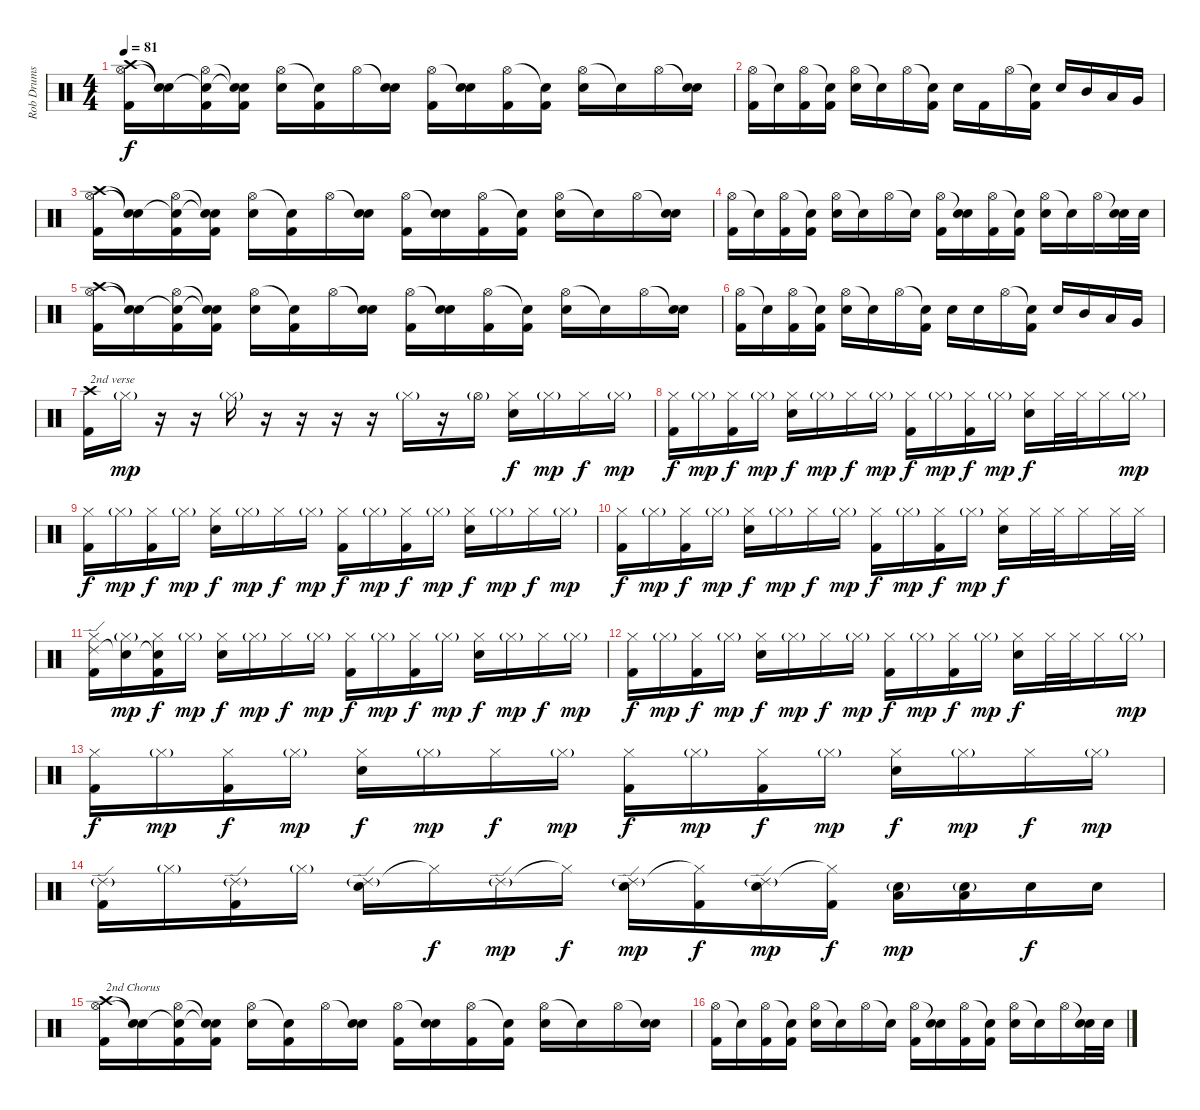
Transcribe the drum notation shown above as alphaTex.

\track ("Rob Drums" "Rob Drums") {instrument percussion}
\staff {score}
\articulation defaults
\ts (4 4)
\tempo 81
\clef neutral
\ks c
("Crash high (hit)" "Hi-Hat (open)" "Kick (hit) 2").16{dy f} ("Snare (hit)"{t} "Snare (hit)"{t}).16 ("Snare (hit)"{t} "Hi-Hat (open)" "Kick (hit) 2").16 ("Snare (hit)"{t} "Snare (hit)"{t} "Kick (hit) 2").16 ("Hi-Hat (open)" "Electric Snare (hit)").16 ("Snare (hit)"{t} "Kick (hit) 2").16 "Hi-Hat (open)".16 ("Snare (hit)"{t} "Electric Snare (hit)").16 ("Hi-Hat (open)" "Kick (hit) 2").16 ("Snare (hit)"{t} "Electric Snare (hit)").16 ("Hi-Hat (open)" "Kick (hit) 2").16 ("Snare (hit)"{t} "Kick (hit) 2").16 ("Hi-Hat (open)" "Electric Snare (hit)").16 "Snare (hit)"{t}.16 "Hi-Hat (open)".16 ("Snare (hit)"{t} "Electric Snare (hit)").16 |
("Hi-Hat (open)" "Kick (hit) 2").16 "Snare (hit)"{t}.16 ("Hi-Hat (open)" "Kick (hit) 2").16 ("Snare (hit)"{t} "Kick (hit) 2").16 ("Hi-Hat (open)" "Electric Snare (hit)").16 "Snare (hit)"{t}.16 "Hi-Hat (open)".16 ("Snare (hit)"{t} "Kick (hit) 2").16 "Electric Snare (hit)".16 "Kick (hit) 2".16 "Hi-Hat (open)".16 ("Snare (hit)"{t} "Kick (hit) 2").16 "Electric Snare (hit)".16 "Mid Tom (hit)".16 "Low Tom (hit)".16 "Very Low Tom (hit)".16 |
("Crash high (hit)" "Hi-Hat (open)" "Kick (hit) 2").16 ("Snare (hit)"{t} "Snare (hit)"{t}).16 ("Snare (hit)"{t} "Hi-Hat (open)" "Kick (hit) 2").16 ("Snare (hit)"{t} "Snare (hit)"{t} "Kick (hit) 2").16 ("Hi-Hat (open)" "Electric Snare (hit)").16 ("Snare (hit)"{t} "Kick (hit) 2").16 "Hi-Hat (open)".16 ("Snare (hit)"{t} "Electric Snare (hit)").16 ("Hi-Hat (open)" "Kick (hit) 2").16 ("Snare (hit)"{t} "Electric Snare (hit)").16 ("Hi-Hat (open)" "Kick (hit) 2").16 ("Snare (hit)"{t} "Kick (hit) 2").16 ("Hi-Hat (open)" "Electric Snare (hit)").16 "Snare (hit)"{t}.16 "Hi-Hat (open)".16 ("Snare (hit)"{t} "Electric Snare (hit)").16 |
("Hi-Hat (open)" "Kick (hit) 2").16 "Snare (hit)"{t}.16 ("Hi-Hat (open)" "Kick (hit) 2").16 ("Snare (hit)"{t} "Kick (hit) 2").16 ("Hi-Hat (open)" "Electric Snare (hit)").16 "Snare (hit)"{t}.16 "Hi-Hat (open)".16 "Snare (hit)"{t}.16 ("Hi-Hat (open)" "Kick (hit) 2").16 ("Snare (hit)"{t} "Electric Snare (hit)").16 ("Hi-Hat (open)" "Kick (hit) 2").16 ("Snare (hit)"{t} "Kick (hit) 2").16 ("Hi-Hat (open)" "Electric Snare (hit)").16 "Snare (hit)"{t}.16 "Hi-Hat (open)".16 ("Snare (hit)"{t} "Electric Snare (hit)").32 "Electric Snare (hit)".32 |
("Crash high (hit)" "Hi-Hat (open)" "Kick (hit) 2").16 ("Snare (hit)"{t} "Snare (hit)"{t}).16 ("Snare (hit)"{t} "Hi-Hat (open)" "Kick (hit) 2").16 ("Snare (hit)"{t} "Snare (hit)"{t} "Kick (hit) 2").16 ("Hi-Hat (open)" "Electric Snare (hit)").16 ("Snare (hit)"{t} "Kick (hit) 2").16 "Hi-Hat (open)".16 ("Snare (hit)"{t} "Electric Snare (hit)").16 ("Hi-Hat (open)" "Kick (hit) 2").16 ("Snare (hit)"{t} "Electric Snare (hit)").16 ("Hi-Hat (open)" "Kick (hit) 2").16 ("Snare (hit)"{t} "Kick (hit) 2").16 ("Hi-Hat (open)" "Electric Snare (hit)").16 "Snare (hit)"{t}.16 "Hi-Hat (open)".16 ("Snare (hit)"{t} "Electric Snare (hit)").16 |
("Hi-Hat (open)" "Kick (hit) 2").16 "Snare (hit)"{t}.16 ("Hi-Hat (open)" "Kick (hit) 2").16 ("Snare (hit)"{t} "Kick (hit) 2").16 ("Hi-Hat (open)" "Electric Snare (hit)").16 "Snare (hit)"{t}.16 "Hi-Hat (open)".16 ("Snare (hit)"{t} "Kick (hit) 2").16 "Electric Snare (hit)".16 "Electric Snare (hit)".16 "Hi-Hat (open)".16 ("Snare (hit)"{t} "Kick (hit) 2").16 "Electric Snare (hit)".16 "Mid Tom (hit)".16 "Low Tom (hit)".16 "Very Low Tom (hit)".16 |
("Crash high (hit)" "Kick (hit) 2").16{txt "2nd verse"} "Hi-Hat (closed)"{g}.16{dy mp} r.16 r.16 "Hi-Hat (closed)"{g}.16 r.16 r.16 r.16 r.16 "Hi-Hat (closed)"{g}.16 r.16 "Hi-Hat (open)"{g}.16 ("Hi-Hat (closed)" "Electric Snare (hit)").16{dy f} "Hi-Hat (closed)"{g}.16{dy mp} "Hi-Hat (closed)".16{dy f} "Hi-Hat (closed)"{g}.16{dy mp} |
("Hi-Hat (closed)" "Kick (hit) 2").16{dy f} "Hi-Hat (closed)"{g}.16{dy mp} ("Hi-Hat (closed)" "Kick (hit) 2").16{dy f} "Hi-Hat (closed)"{g}.16{dy mp} ("Hi-Hat (closed)" "Electric Snare (hit)").16{dy f} "Hi-Hat (closed)"{g}.16{dy mp} "Hi-Hat (closed)".16{dy f} "Hi-Hat (closed)"{g}.16{dy mp} ("Hi-Hat (closed)" "Kick (hit) 2").16{dy f} "Hi-Hat (closed)"{g}.16{dy mp} ("Hi-Hat (closed)" "Kick (hit) 2").16{dy f} "Hi-Hat (closed)"{g}.16{dy mp} ("Hi-Hat (closed)" "Electric Snare (hit)").16{dy f} "Hi-Hat (closed)".32 "Hi-Hat (closed)".32 "Hi-Hat (closed)".16 "Hi-Hat (closed)"{g}.16{dy mp} |
("Hi-Hat (closed)" "Kick (hit) 2").16{dy f} "Hi-Hat (closed)"{g}.16{dy mp} ("Hi-Hat (closed)" "Kick (hit) 2").16{dy f} "Hi-Hat (closed)"{g}.16{dy mp} ("Hi-Hat (closed)" "Electric Snare (hit)").16{dy f} "Hi-Hat (closed)"{g}.16{dy mp} "Hi-Hat (closed)".16{dy f} "Hi-Hat (closed)"{g}.16{dy mp} ("Hi-Hat (closed)" "Kick (hit) 2").16{dy f} "Hi-Hat (closed)"{g}.16{dy mp} ("Hi-Hat (closed)" "Kick (hit) 2").16{dy f} "Hi-Hat (closed)"{g}.16{dy mp} ("Hi-Hat (closed)" "Electric Snare (hit)").16{dy f} "Hi-Hat (closed)"{g}.16{dy mp} "Hi-Hat (closed)".16{dy f} "Hi-Hat (closed)"{g}.16{dy mp} |
("Hi-Hat (closed)" "Kick (hit) 2").16{dy f} "Hi-Hat (closed)"{g}.16{dy mp} ("Hi-Hat (closed)" "Kick (hit) 2").16{dy f} "Hi-Hat (closed)"{g}.16{dy mp} ("Hi-Hat (closed)" "Electric Snare (hit)").16{dy f} "Hi-Hat (closed)"{g}.16{dy mp} "Hi-Hat (closed)".16{dy f} "Hi-Hat (closed)"{g}.16{dy mp} ("Hi-Hat (closed)" "Kick (hit) 2").16{dy f} "Hi-Hat (closed)"{g}.16{dy mp} ("Hi-Hat (closed)" "Kick (hit) 2").16{dy f} "Hi-Hat (closed)"{g}.16{dy mp} ("Hi-Hat (closed)" "Electric Snare (hit)").16{dy f} "Hi-Hat (closed)".32 "Hi-Hat (closed)".32 "Hi-Hat (closed)".16 "Hi-Hat (closed)".32 "Hi-Hat (closed)".32 |
("Ride (edge) 2" "Hi-Hat (closed)" "Kick (hit) 2").16 ("Snare (hit)"{t} "Hi-Hat (closed)"{g}).16{dy mp} ("Snare (hit)"{t} "Hi-Hat (closed)" "Kick (hit) 2").16{dy f} "Hi-Hat (closed)"{g}.16{dy mp} ("Hi-Hat (closed)" "Electric Snare (hit)").16{dy f} "Hi-Hat (closed)"{g}.16{dy mp} "Hi-Hat (closed)".16{dy f} "Hi-Hat (closed)"{g}.16{dy mp} ("Hi-Hat (closed)" "Kick (hit) 2").16{dy f} "Hi-Hat (closed)"{g}.16{dy mp} ("Hi-Hat (closed)" "Kick (hit) 2").16{dy f} "Hi-Hat (closed)"{g}.16{dy mp} ("Hi-Hat (closed)" "Electric Snare (hit)").16{dy f} "Hi-Hat (closed)"{g}.16{dy mp} "Hi-Hat (closed)".16{dy f} "Hi-Hat (closed)"{g}.16{dy mp} |
("Hi-Hat (closed)" "Kick (hit) 2").16{dy f} "Hi-Hat (closed)"{g}.16{dy mp} ("Hi-Hat (closed)" "Kick (hit) 2").16{dy f} "Hi-Hat (closed)"{g}.16{dy mp} ("Hi-Hat (closed)" "Electric Snare (hit)").16{dy f} "Hi-Hat (closed)"{g}.16{dy mp} "Hi-Hat (closed)".16{dy f} "Hi-Hat (closed)"{g}.16{dy mp} ("Hi-Hat (closed)" "Kick (hit) 2").16{dy f} "Hi-Hat (closed)"{g}.16{dy mp} ("Hi-Hat (closed)" "Kick (hit) 2").16{dy f} "Hi-Hat (closed)"{g}.16{dy mp} ("Hi-Hat (closed)" "Electric Snare (hit)").16{dy f} "Hi-Hat (closed)".32 "Hi-Hat (closed)".32 "Hi-Hat (closed)".16 "Hi-Hat (closed)"{g}.16{dy mp} |
("Hi-Hat (closed)" "Kick (hit) 2").16{dy f} "Hi-Hat (closed)"{g}.16{dy mp} ("Hi-Hat (closed)" "Kick (hit) 2").16{dy f} "Hi-Hat (closed)"{g}.16{dy mp} ("Hi-Hat (closed)" "Electric Snare (hit)").16{dy f} "Hi-Hat (closed)"{g}.16{dy mp} "Hi-Hat (closed)".16{dy f} "Hi-Hat (closed)"{g}.16{dy mp} ("Hi-Hat (closed)" "Kick (hit) 2").16{dy f} "Hi-Hat (closed)"{g}.16{dy mp} ("Hi-Hat (closed)" "Kick (hit) 2").16{dy f} "Hi-Hat (closed)"{g}.16{dy mp} ("Hi-Hat (closed)" "Electric Snare (hit)").16{dy f} "Hi-Hat (closed)"{g}.16{dy mp} "Hi-Hat (closed)".16{dy f} "Hi-Hat (closed)"{g}.16{dy mp} |
("Ride (edge) 2"{g} "Kick (hit) 2").16 "Hi-Hat (closed)"{g}.16 ("Ride (edge) 2"{g} "Kick (hit) 2").16 "Hi-Hat (closed)"{g}.16 ("Ride (edge) 2"{g} "Electric Snare (hit)").16 "Hi-Hat (closed)"{t}.16{dy f} "Ride (edge) 2"{g}.16{dy mp} "Hi-Hat (closed)"{t}.16{dy f} ("Ride (edge) 2"{g} "Electric Snare (hit)").16{dy mp} ("Hi-Hat (closed)"{t} "Kick (hit) 2").16{dy f} ("Ride (edge) 2"{g} "Electric Snare (hit)").16{dy mp} ("Hi-Hat (closed)"{t} "Kick (hit) 2").16{dy f} ("Electric Snare (hit)"{g} "Low Tom (hit)").16{dy mp} ("Electric Snare (hit)"{g} "Low Tom (hit)").16 "Electric Snare (hit)".16{dy f} "Electric Snare (hit)".16 |
("Crash high (hit)" "Hi-Hat (open)" "Kick (hit) 2").16{txt "2nd Chorus"} ("Snare (hit)"{t} "Snare (hit)"{t}).16 ("Snare (hit)"{t} "Hi-Hat (open)" "Kick (hit) 2").16 ("Snare (hit)"{t} "Snare (hit)"{t} "Kick (hit) 2").16 ("Hi-Hat (open)" "Electric Snare (hit)").16 ("Snare (hit)"{t} "Kick (hit) 2").16 "Hi-Hat (open)".16 ("Snare (hit)"{t} "Electric Snare (hit)").16 ("Hi-Hat (open)" "Kick (hit) 2").16 ("Snare (hit)"{t} "Electric Snare (hit)").16 ("Hi-Hat (open)" "Kick (hit) 2").16 ("Snare (hit)"{t} "Kick (hit) 2").16 ("Hi-Hat (open)" "Electric Snare (hit)").16 "Snare (hit)"{t}.16 "Hi-Hat (open)".16 ("Snare (hit)"{t} "Electric Snare (hit)").16 |
("Hi-Hat (open)" "Kick (hit) 2").16 "Snare (hit)"{t}.16 ("Hi-Hat (open)" "Kick (hit) 2").16 ("Snare (hit)"{t} "Kick (hit) 2").16 ("Hi-Hat (open)" "Electric Snare (hit)").16 "Snare (hit)"{t}.16 "Hi-Hat (open)".16 "Snare (hit)"{t}.16 ("Hi-Hat (open)" "Kick (hit) 2").16 ("Snare (hit)"{t} "Electric Snare (hit)").16 ("Hi-Hat (open)" "Kick (hit) 2").16 ("Snare (hit)"{t} "Kick (hit) 2").16 ("Hi-Hat (open)" "Electric Snare (hit)").16 "Snare (hit)"{t}.16 "Hi-Hat (open)".16 ("Snare (hit)"{t} "Electric Snare (hit)").32 "Electric Snare (hit)".32
